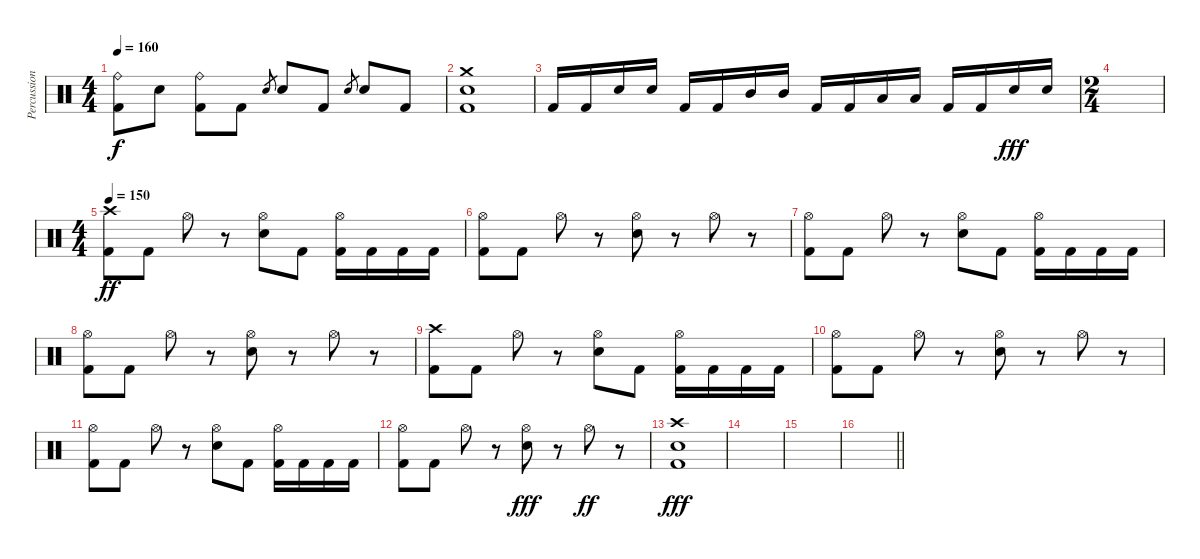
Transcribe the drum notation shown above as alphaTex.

\track ("Percussion" "Percussion") {instrument percussion}
\staff {score}
\articulation defaults
\ts (4 4)
\tempo 160
\clef neutral
\ks c
("Ride (bell)" "Kick (hit) 2").8{dy f} "Electric Snare (hit)".8 ("Ride (bell)" "Kick (hit) 2").8 "Kick (hit) 2".8 "Electric Snare (hit)".8{gr} "Electric Snare (hit)".8 "Kick (hit) 2".8 "Electric Snare (hit)".8{gr} "Electric Snare (hit)".8 "Kick (hit) 2".8 |
("Crash medium (hit)" "Electric Snare (hit)" "Kick (hit) 2").1 |
"Kick (hit) 2".16 "Kick (hit) 2".16 "Electric Snare (hit)".16 "Electric Snare (hit)".16 "Kick (hit) 2".16 "Kick (hit) 2".16 "Mid Tom (hit)".16 "Mid Tom (hit)".16 "Kick (hit) 2".16 "Kick (hit) 2".16 "Low Tom (hit)".16 "Low Tom (hit)".16 "Kick (hit) 2".16 "Kick (hit) 2".16 "Electric Snare (hit)".16{dy fff} "Electric Snare (hit)".16 |
\ts (2 4)
|
\ts (4 4)
\tempo 150
("Crash high (hit)" "Kick (hit) 2").8{dy ff} "Kick (hit) 2".8 "Hi-Hat (open)".8 r.8 ("Hi-Hat (open)" "Electric Snare (hit)").8 "Kick (hit) 2".8 ("Hi-Hat (open)" "Kick (hit) 2").16 "Kick (hit) 2".16 "Kick (hit) 2".16 "Kick (hit) 2".16 |
("Hi-Hat (open)" "Kick (hit) 2").8 "Kick (hit) 2".8 "Hi-Hat (open)".8 r.8 ("Hi-Hat (open)" "Electric Snare (hit)").8 r.8 "Hi-Hat (open)".8 r.8 |
("Hi-Hat (open)" "Kick (hit) 2").8 "Kick (hit) 2".8 "Hi-Hat (open)".8 r.8 ("Hi-Hat (open)" "Electric Snare (hit)").8 "Kick (hit) 2".8 ("Hi-Hat (open)" "Kick (hit) 2").16 "Kick (hit) 2".16 "Kick (hit) 2".16 "Kick (hit) 2".16 |
("Hi-Hat (open)" "Kick (hit) 2").8 "Kick (hit) 2".8 "Hi-Hat (open)".8 r.8 ("Hi-Hat (open)" "Electric Snare (hit)").8 r.8 "Hi-Hat (open)".8 r.8 |
("Crash high (hit)" "Kick (hit) 2").8 "Kick (hit) 2".8 "Hi-Hat (open)".8 r.8 ("Hi-Hat (open)" "Electric Snare (hit)").8 "Kick (hit) 2".8 ("Hi-Hat (open)" "Kick (hit) 2").16 "Kick (hit) 2".16 "Kick (hit) 2".16 "Kick (hit) 2".16 |
("Hi-Hat (open)" "Kick (hit) 2").8 "Kick (hit) 2".8 "Hi-Hat (open)".8 r.8 ("Hi-Hat (open)" "Electric Snare (hit)").8 r.8 "Hi-Hat (open)".8 r.8 |
("Hi-Hat (open)" "Kick (hit) 2").8 "Kick (hit) 2".8 "Hi-Hat (open)".8 r.8 ("Hi-Hat (open)" "Electric Snare (hit)").8 "Kick (hit) 2".8 ("Hi-Hat (open)" "Kick (hit) 2").16 "Kick (hit) 2".16 "Kick (hit) 2".16 "Kick (hit) 2".16 |
("Hi-Hat (open)" "Kick (hit) 2").8 "Kick (hit) 2".8 "Hi-Hat (open)".8 r.8 ("Hi-Hat (open)" "Electric Snare (hit)").8{dy fff} r.8 "Hi-Hat (open)".8{dy ff} r.8 |
("Crash high (hit)" "Electric Snare (hit)" "Kick (hit) 2").1{dy fff} |
|
|
\barLineRight lightlight
